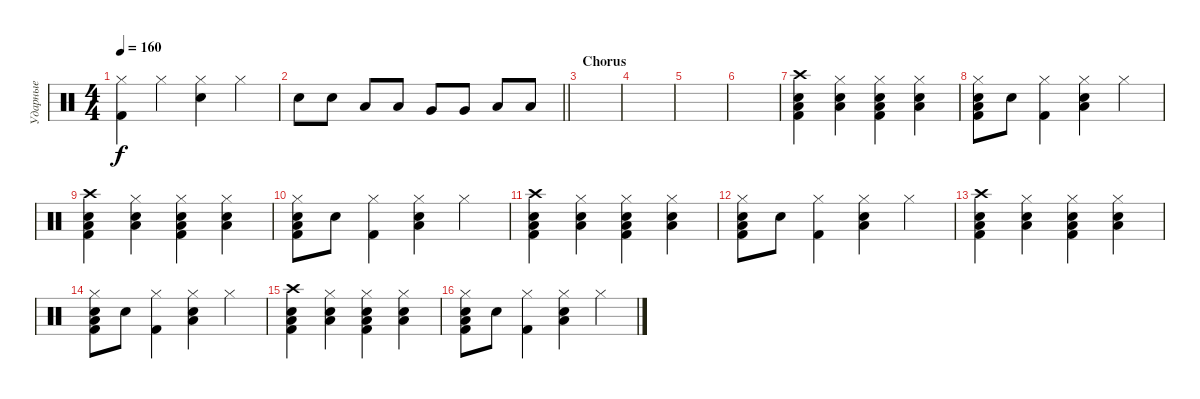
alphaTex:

\track ("Ударные" "Ударные") {instrument percussion}
\staff {score}
\articulation defaults
\ts (4 4)
\tempo 160
\clef neutral
\ks c
("Hi-Hat (closed)" "Kick (hit) 2").4{dy f} "Hi-Hat (closed)".4 ("Hi-Hat (closed)" "Snare (hit) 2").4 "Hi-Hat (closed)".4 |
\barLineRight lightlight "Snare (hit) 2".8 "Snare (hit) 2".8 "Low Tom (hit)".8 "Low Tom (hit)".8 "Very Low Tom (hit)".8 "Very Low Tom (hit)".8 "Low Floor Tom (hit)".8 "Low Floor Tom (hit)".8
|
\section ("" "Chorus")
|
|
|
|
("Crash high (hit)" "Kick (hit) 2" "Snare (hit) 2" "Low Floor Tom (hit)").4 ("Hi-Hat (closed)" "Snare (hit) 2" "Low Floor Tom (hit)").4 ("Hi-Hat (closed)" "Kick (hit) 2" "Snare (hit) 2" "Low Floor Tom (hit)").4 ("Hi-Hat (closed)" "Snare (hit) 2" "Low Floor Tom (hit)").4 |
("Hi-Hat (closed)" "Kick (hit) 2" "Snare (hit) 2" "Low Floor Tom (hit)").8 "Snare (hit) 2".8 ("Hi-Hat (closed)" "Kick (hit) 2").4 ("Hi-Hat (closed)" "Snare (hit) 2" "Low Floor Tom (hit)").4 "Hi-Hat (closed)".4 |
("Crash high (hit)" "Kick (hit) 2" "Snare (hit) 2" "Low Floor Tom (hit)").4 ("Hi-Hat (closed)" "Snare (hit) 2" "Low Floor Tom (hit)").4 ("Hi-Hat (closed)" "Kick (hit) 2" "Snare (hit) 2" "Low Floor Tom (hit)").4 ("Hi-Hat (closed)" "Snare (hit) 2" "Low Floor Tom (hit)").4 |
("Hi-Hat (closed)" "Kick (hit) 2" "Snare (hit) 2" "Low Floor Tom (hit)").8 "Snare (hit) 2".8 ("Hi-Hat (closed)" "Kick (hit) 2").4 ("Hi-Hat (closed)" "Snare (hit) 2" "Low Floor Tom (hit)").4 "Hi-Hat (closed)".4 |
("Crash high (hit)" "Kick (hit) 2" "Snare (hit) 2" "Low Floor Tom (hit)").4 ("Hi-Hat (closed)" "Snare (hit) 2" "Low Floor Tom (hit)").4 ("Hi-Hat (closed)" "Kick (hit) 2" "Snare (hit) 2" "Low Floor Tom (hit)").4 ("Hi-Hat (closed)" "Snare (hit) 2" "Low Floor Tom (hit)").4 |
("Hi-Hat (closed)" "Kick (hit) 2" "Snare (hit) 2" "Low Floor Tom (hit)").8 "Snare (hit) 2".8 ("Hi-Hat (closed)" "Kick (hit) 2").4 ("Hi-Hat (closed)" "Snare (hit) 2" "Low Floor Tom (hit)").4 "Hi-Hat (closed)".4 |
("Crash high (hit)" "Kick (hit) 2" "Snare (hit) 2" "Low Floor Tom (hit)").4 ("Hi-Hat (closed)" "Snare (hit) 2" "Low Floor Tom (hit)").4 ("Hi-Hat (closed)" "Kick (hit) 2" "Snare (hit) 2" "Low Floor Tom (hit)").4 ("Hi-Hat (closed)" "Snare (hit) 2" "Low Floor Tom (hit)").4 |
("Hi-Hat (closed)" "Kick (hit) 2" "Snare (hit) 2" "Low Floor Tom (hit)").8 "Snare (hit) 2".8 ("Hi-Hat (closed)" "Kick (hit) 2").4 ("Hi-Hat (closed)" "Snare (hit) 2" "Low Floor Tom (hit)").4 "Hi-Hat (closed)".4 |
("Crash high (hit)" "Kick (hit) 2" "Snare (hit) 2" "Low Floor Tom (hit)").4 ("Hi-Hat (closed)" "Snare (hit) 2" "Low Floor Tom (hit)").4 ("Hi-Hat (closed)" "Kick (hit) 2" "Snare (hit) 2" "Low Floor Tom (hit)").4 ("Hi-Hat (closed)" "Snare (hit) 2" "Low Floor Tom (hit)").4 |
("Hi-Hat (closed)" "Kick (hit) 2" "Snare (hit) 2" "Low Floor Tom (hit)").8 "Snare (hit) 2".8 ("Hi-Hat (closed)" "Kick (hit) 2").4 ("Hi-Hat (closed)" "Snare (hit) 2" "Low Floor Tom (hit)").4 "Hi-Hat (closed)".4
